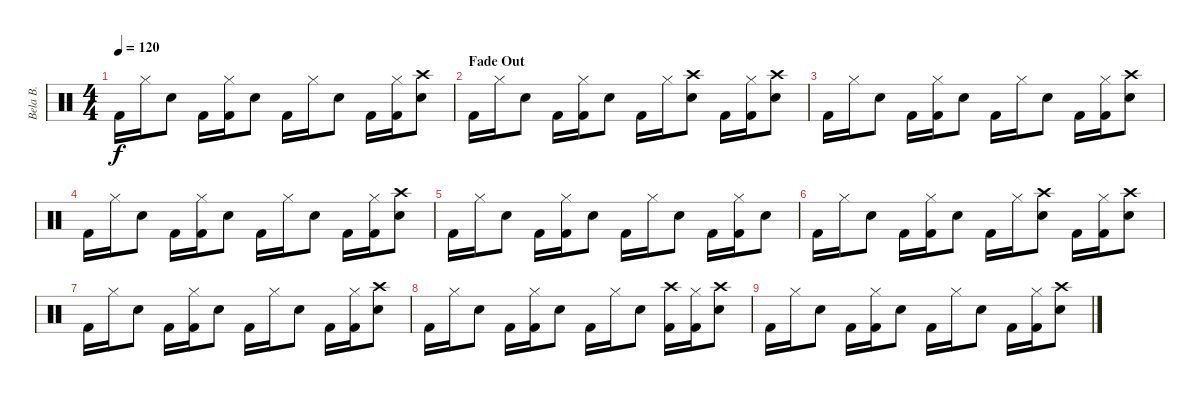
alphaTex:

\track ("Bela B." "Bela B.") {instrument percussion}
\staff {score}
\articulation defaults
\ts (4 4)
\tempo 120
\clef neutral
\ks c "Kick (hit) 2".16{dy f} "Hi-Hat (closed)".16 "Electric Snare (hit)".8 "Kick (hit) 2".16
("Hi-Hat (closed)" "Kick (hit) 2").16 "Electric Snare (hit)".8 "Kick (hit) 2".16 "Hi-Hat (closed)".16 "Electric Snare (hit)".8 "Kick (hit) 2".16 ("Hi-Hat (closed)" "Kick (hit) 2").16 ("Crash high (hit)" "Electric Snare (hit)").8 |
\section ("" "Fade Out")
"Kick (hit) 2".16 "Hi-Hat (closed)".16 "Electric Snare (hit)".8 "Kick (hit) 2".16 ("Hi-Hat (closed)" "Kick (hit) 2").16 "Electric Snare (hit)".8 "Kick (hit) 2".16 "Hi-Hat (closed)".16 ("Crash high (hit)" "Electric Snare (hit)").8 "Kick (hit) 2".16 ("Hi-Hat (closed)" "Kick (hit) 2").16 ("Crash high (hit)" "Electric Snare (hit)").8 |
"Kick (hit) 2".16 "Hi-Hat (closed)".16 "Electric Snare (hit)".8 "Kick (hit) 2".16 ("Hi-Hat (closed)" "Kick (hit) 2").16 "Electric Snare (hit)".8 "Kick (hit) 2".16 "Hi-Hat (closed)".16 "Electric Snare (hit)".8 "Kick (hit) 2".16 ("Hi-Hat (closed)" "Kick (hit) 2").16 ("Crash high (hit)" "Electric Snare (hit)").8 |
"Kick (hit) 2".16 "Hi-Hat (closed)".16 "Electric Snare (hit)".8 "Kick (hit) 2".16 ("Hi-Hat (closed)" "Kick (hit) 2").16 "Electric Snare (hit)".8 "Kick (hit) 2".16 "Hi-Hat (closed)".16 "Electric Snare (hit)".8 "Kick (hit) 2".16 ("Hi-Hat (closed)" "Kick (hit) 2").16 ("Crash high (hit)" "Electric Snare (hit)").8 |
"Kick (hit) 2".16 "Hi-Hat (closed)".16 "Electric Snare (hit)".8 "Kick (hit) 2".16 ("Hi-Hat (closed)" "Kick (hit) 2").16 "Electric Snare (hit)".8 "Kick (hit) 2".16 "Hi-Hat (closed)".16 "Electric Snare (hit)".8 "Kick (hit) 2".16 ("Hi-Hat (closed)" "Kick (hit) 2").16 "Electric Snare (hit)".8 |
"Kick (hit) 2".16 "Hi-Hat (closed)".16 "Electric Snare (hit)".8 "Kick (hit) 2".16 ("Hi-Hat (closed)" "Kick (hit) 2").16 "Electric Snare (hit)".8 "Kick (hit) 2".16 "Hi-Hat (closed)".16 ("Crash high (hit)" "Electric Snare (hit)").8 "Kick (hit) 2".16 ("Hi-Hat (closed)" "Kick (hit) 2").16 ("Crash high (hit)" "Electric Snare (hit)").8 |
"Kick (hit) 2".16{volume 10} "Hi-Hat (closed)".16 "Electric Snare (hit)".8 "Kick (hit) 2".16 ("Hi-Hat (closed)" "Kick (hit) 2").16 "Electric Snare (hit)".8 "Kick (hit) 2".16 "Hi-Hat (closed)".16 "Electric Snare (hit)".8 "Kick (hit) 2".16 ("Hi-Hat (closed)" "Kick (hit) 2").16 ("Crash high (hit)" "Electric Snare (hit)").8 |
"Kick (hit) 2".16 "Hi-Hat (closed)".16{volume 7} "Electric Snare (hit)".8 "Kick (hit) 2".16 ("Hi-Hat (closed)" "Kick (hit) 2").16 "Electric Snare (hit)".8 "Kick (hit) 2".16 "Hi-Hat (closed)".16 "Electric Snare (hit)".8 ("Crash high (hit)" "Kick (hit) 2").16 ("Hi-Hat (closed)" "Kick (hit) 2").16 ("Crash high (hit)" "Electric Snare (hit)").8 |
"Kick (hit) 2".16{volume 3} "Hi-Hat (closed)".16 "Electric Snare (hit)".8 "Kick (hit) 2".16 ("Hi-Hat (closed)" "Kick (hit) 2").16 "Electric Snare (hit)".8 "Kick (hit) 2".16 "Hi-Hat (closed)".16 "Electric Snare (hit)".8 "Kick (hit) 2".16 ("Hi-Hat (closed)" "Kick (hit) 2").16 ("Crash high (hit)" "Electric Snare (hit)").8
